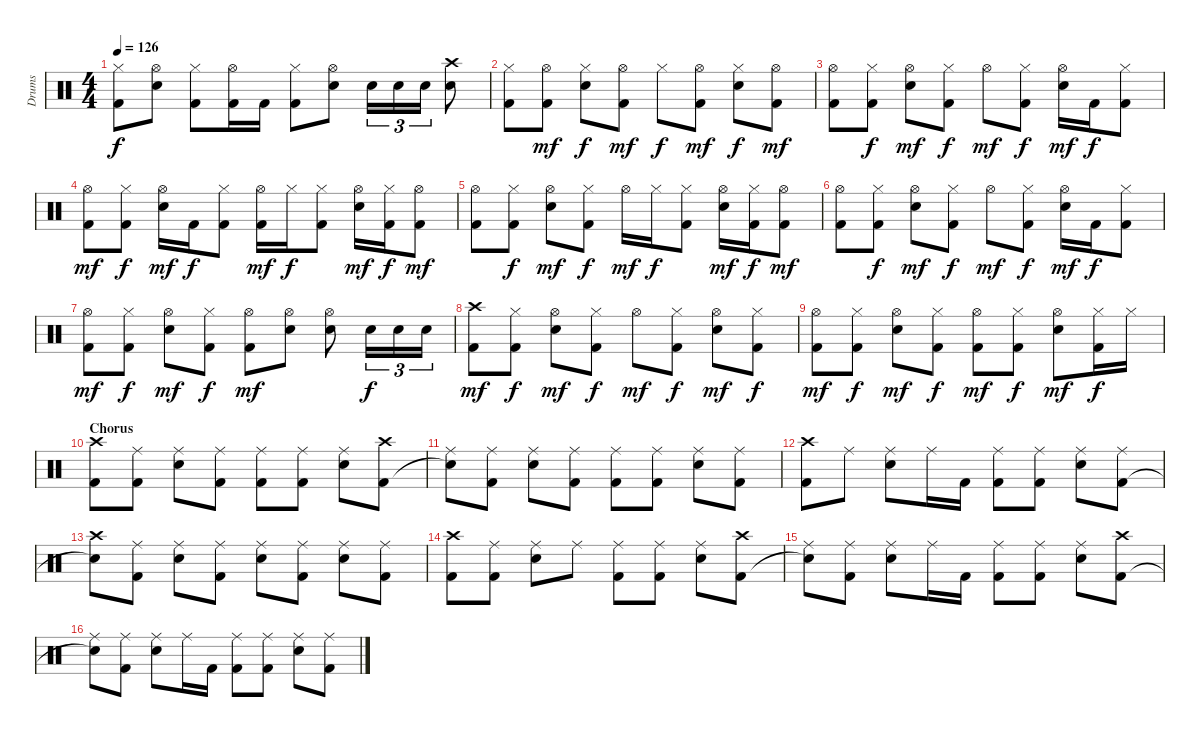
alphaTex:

\track ("Drums" "Drums") {instrument percussion}
\staff {score}
\articulation defaults
\ts (4 4)
\tempo 126
\clef neutral
\ks c
("Hi-Hat (closed)" "Kick (hit) 2").8{dy f} ("Hi-Hat (open)" "Electric Snare (hit)").8 ("Hi-Hat (closed)" "Kick (hit) 2").8 ("Hi-Hat (open)" "Kick (hit) 2").16 "Kick (hit) 2".16 ("Hi-Hat (closed)" "Kick (hit) 2").8 ("Hi-Hat (open)" "Electric Snare (hit)").8 "Electric Snare (hit)".16{tu (3 2)} "Electric Snare (hit)".16{tu (3 2)} "Electric Snare (hit)".16{tu (3 2)} ("Crash high (hit)" "Electric Snare (hit)").8 |
("Hi-Hat (closed)" "Kick (hit) 2").8 ("Hi-Hat (open)" "Kick (hit) 2").8{dy mf} ("Hi-Hat (closed)" "Electric Snare (hit)").8{dy f} ("Hi-Hat (open)" "Kick (hit) 2").8{dy mf} "Hi-Hat (closed)".8{dy f} ("Hi-Hat (open)" "Kick (hit) 2").8{dy mf} ("Hi-Hat (closed)" "Electric Snare (hit)").8{dy f} ("Hi-Hat (open)" "Kick (hit) 2").8{dy mf} |
("Hi-Hat (open)" "Kick (hit) 2").8 ("Hi-Hat (closed)" "Kick (hit) 2").8{dy f} ("Hi-Hat (open)" "Electric Snare (hit)").8{dy mf} ("Hi-Hat (closed)" "Kick (hit) 2").8{dy f} "Hi-Hat (open)".8{dy mf} ("Hi-Hat (closed)" "Kick (hit) 2").8{dy f} ("Hi-Hat (open)" "Electric Snare (hit)").16{dy mf} "Kick (hit) 2".16{dy f} ("Hi-Hat (closed)" "Kick (hit) 2").8 |
("Hi-Hat (open)" "Kick (hit) 2").8{dy mf} ("Hi-Hat (closed)" "Kick (hit) 2").8{dy f} ("Hi-Hat (open)" "Electric Snare (hit)").16{dy mf} "Kick (hit) 2".16{dy f} ("Hi-Hat (closed)" "Kick (hit) 2").8 ("Hi-Hat (open)" "Kick (hit) 2").16{dy mf} "Hi-Hat (closed)".16{dy f} ("Hi-Hat (closed)" "Kick (hit) 2").8 ("Hi-Hat (open)" "Electric Snare (hit)").16{dy mf} ("Hi-Hat (closed)" "Kick (hit) 2").16{dy f} ("Hi-Hat (open)" "Kick (hit) 2").8{dy mf} |
("Hi-Hat (open)" "Kick (hit) 2").8 ("Hi-Hat (closed)" "Kick (hit) 2").8{dy f} ("Hi-Hat (open)" "Electric Snare (hit)").8{dy mf} ("Hi-Hat (closed)" "Kick (hit) 2").8{dy f} "Hi-Hat (open)".16{dy mf} "Hi-Hat (closed)".16{dy f} ("Hi-Hat (closed)" "Kick (hit) 2").8 ("Hi-Hat (open)" "Electric Snare (hit)").16{dy mf} ("Hi-Hat (closed)" "Kick (hit) 2").16{dy f} ("Hi-Hat (open)" "Kick (hit) 2").8{dy mf} |
("Hi-Hat (open)" "Kick (hit) 2").8 ("Hi-Hat (closed)" "Kick (hit) 2").8{dy f} ("Hi-Hat (open)" "Electric Snare (hit)").8{dy mf} ("Hi-Hat (closed)" "Kick (hit) 2").8{dy f} "Hi-Hat (open)".8{dy mf} ("Hi-Hat (closed)" "Kick (hit) 2").8{dy f} ("Hi-Hat (open)" "Electric Snare (hit)").16{dy mf} "Kick (hit) 2".16{dy f} ("Hi-Hat (closed)" "Kick (hit) 2").8 |
("Hi-Hat (open)" "Kick (hit) 2").8{dy mf} ("Hi-Hat (closed)" "Kick (hit) 2").8{dy f} ("Hi-Hat (open)" "Electric Snare (hit)").8{dy mf} ("Hi-Hat (closed)" "Kick (hit) 2").8{dy f} ("Hi-Hat (open)" "Kick (hit) 2").8{dy mf} ("Hi-Hat (open)" "Electric Snare (hit)").8 ("Hi-Hat (open)" "Electric Snare (hit)").8 "Electric Snare (hit)".16{tu (3 2) dy f} "Electric Snare (hit)".16{tu (3 2)} "Electric Snare (hit)".16{tu (3 2)} |
("Crash high (hit)" "Kick (hit) 2").8{dy mf} ("Hi-Hat (closed)" "Kick (hit) 2").8{dy f} ("Hi-Hat (open)" "Electric Snare (hit)").8{dy mf} ("Hi-Hat (closed)" "Kick (hit) 2").8{dy f} "Hi-Hat (open)".8{dy mf} ("Hi-Hat (closed)" "Kick (hit) 2").8{dy f} ("Hi-Hat (open)" "Electric Snare (hit)").8{dy mf} ("Hi-Hat (closed)" "Kick (hit) 2").8{dy f} |
("Hi-Hat (open)" "Kick (hit) 2").8{dy mf} ("Hi-Hat (closed)" "Kick (hit) 2").8{dy f} ("Hi-Hat (open)" "Electric Snare (hit)").8{dy mf} ("Hi-Hat (closed)" "Kick (hit) 2").8{dy f} ("Hi-Hat (open)" "Kick (hit) 2").8{dy mf} ("Hi-Hat (closed)" "Kick (hit) 2").8{dy f} ("Hi-Hat (open)" "Electric Snare (hit)").8{dy mf} ("Hi-Hat (closed)" "Kick (hit) 2").16{dy f} "Hi-Hat (closed)".16 |
\section ("" "Chorus")
("Crash high (hit)" "Kick (hit) 2").8 ("Ride (middle)" "Kick (hit) 2").8 ("Ride (middle)" "Electric Snare (hit)").8 ("Ride (middle)" "Kick (hit) 2").8 ("Ride (middle)" "Kick (hit) 2").8 ("Ride (middle)" "Kick (hit) 2").8 ("Ride (middle)" "Electric Snare (hit)").8 ("Crash high (hit)" "Kick (hit) 2").8 |
("Ride (middle)" "Snare (hit)"{t}).8 ("Ride (middle)" "Kick (hit) 2").8 ("Ride (middle)" "Electric Snare (hit)").8 ("Ride (middle)" "Kick (hit) 2").8 ("Ride (middle)" "Kick (hit) 2").8 ("Ride (middle)" "Kick (hit) 2").8 ("Ride (middle)" "Electric Snare (hit)").8 ("Ride (middle)" "Kick (hit) 2").8 |
("Crash high (hit)" "Kick (hit) 2").8 "Ride (middle)".8 ("Ride (middle)" "Electric Snare (hit)").8 "Ride (middle)".16 "Kick (hit) 2".16 ("Ride (middle)" "Kick (hit) 2").8 ("Ride (middle)" "Kick (hit) 2").8 ("Ride (middle)" "Electric Snare (hit)").8 ("Ride (middle)" "Kick (hit) 2").8 |
("Crash high (hit)" "Snare (hit)"{t}).8 ("Ride (middle)" "Kick (hit) 2").8 ("Ride (middle)" "Electric Snare (hit)").8 ("Ride (middle)" "Kick (hit) 2").8 ("Ride (middle)" "Electric Snare (hit)").8 ("Ride (middle)" "Kick (hit) 2").8 ("Ride (middle)" "Electric Snare (hit)").8 ("Ride (middle)" "Kick (hit) 2").8 |
("Crash high (hit)" "Kick (hit) 2").8 ("Ride (middle)" "Kick (hit) 2").8 ("Ride (middle)" "Electric Snare (hit)").8 "Ride (middle)".8 ("Ride (middle)" "Kick (hit) 2").8 ("Ride (middle)" "Kick (hit) 2").8 ("Ride (middle)" "Electric Snare (hit)").8 ("Crash high (hit)" "Kick (hit) 2").8 |
("Ride (middle)" "Snare (hit)"{t}).8 ("Ride (middle)" "Kick (hit) 2").8 ("Ride (middle)" "Electric Snare (hit)").8 "Ride (middle)".16 "Kick (hit) 2".16 ("Ride (middle)" "Kick (hit) 2").8 ("Ride (middle)" "Kick (hit) 2").8 ("Ride (middle)" "Electric Snare (hit)").8 ("Crash high (hit)" "Kick (hit) 2").8 |
("Ride (middle)" "Snare (hit)"{t}).8 ("Ride (middle)" "Kick (hit) 2").8 ("Ride (middle)" "Electric Snare (hit)").8 "Ride (middle)".16 "Kick (hit) 2".16 ("Ride (middle)" "Kick (hit) 2").8 ("Ride (middle)" "Kick (hit) 2").8 ("Ride (middle)" "Electric Snare (hit)").8 ("Ride (middle)" "Kick (hit) 2").8
